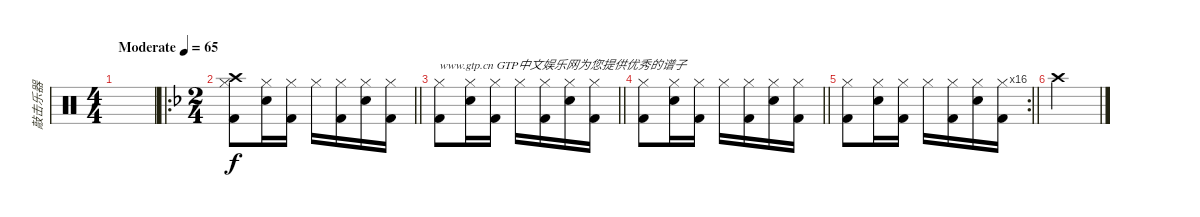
\track ("敲击乐器" "敲击乐器") {solo instrument percussion}
\staff {score}
\articulation defaults
\ts (4 4)
\tempo (65 "Moderate")
\clef neutral
\ks c
|
\ro
\ts (2 4)
\barLineRight lightlight
\ks f
("Kick (hit) 2" "Crash high (hit)" "Hi-Hat (closed)").8 ("Snare (hit) 2" "Hi-Hat (closed)").16 ("Hi-Hat (closed)" "Kick (hit) 2").16 "Hi-Hat (closed)".16 ("Hi-Hat (closed)" "Kick (hit) 2").16 ("Snare (hit) 2" "Hi-Hat (closed)").16 ("Kick (hit) 2" "Hi-Hat (closed)").16 |
\barLineRight lightlight
("Kick (hit) 2" "Hi-Hat (closed)").8{txt "www.gtp.cn GTP中文娱乐网为您提供优秀的谱子"} ("Snare (hit) 2" "Hi-Hat (closed)").16 ("Hi-Hat (closed)" "Kick (hit) 2").16 "Hi-Hat (closed)".16 ("Hi-Hat (closed)" "Kick (hit) 2").16 ("Snare (hit) 2" "Hi-Hat (closed)").16 ("Kick (hit) 2" "Hi-Hat (closed)").16 |
\barLineRight lightlight
("Kick (hit) 2" "Hi-Hat (closed)").8 ("Snare (hit) 2" "Hi-Hat (closed)").16 ("Hi-Hat (closed)" "Kick (hit) 2").16 "Hi-Hat (closed)".16 ("Hi-Hat (closed)" "Kick (hit) 2").16 ("Snare (hit) 2" "Hi-Hat (closed)").16 ("Kick (hit) 2" "Hi-Hat (closed)").16 |
\rc 16
\barLineRight lightlight
("Kick (hit) 2" "Hi-Hat (closed)").8 ("Snare (hit) 2" "Hi-Hat (closed)").16 ("Hi-Hat (closed)" "Kick (hit) 2").16 "Hi-Hat (closed)".16 ("Hi-Hat (closed)" "Kick (hit) 2").16 ("Snare (hit) 2" "Hi-Hat (closed)").16 ("Kick (hit) 2" "Hi-Hat (closed)").16 |
"Crash high (hit)".2
